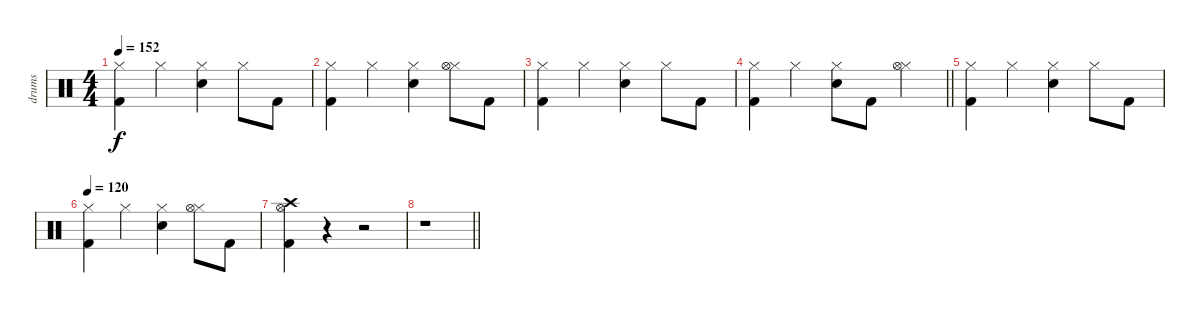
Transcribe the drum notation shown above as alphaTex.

\track ("drums" "drums") {instrument percussion}
\staff {score}
\articulation defaults
\ts (4 4)
\tempo 152
\clef neutral
\ks c
("Hi-Hat (closed)" "Kick (hit) 2").4{dy f} "Hi-Hat (closed)".4 ("Hi-Hat (closed)" "Electric Snare (hit)").4 "Hi-Hat (closed)".8 "Kick (hit) 2".8 |
("Hi-Hat (closed)" "Kick (hit) 2").4 "Hi-Hat (closed)".4 ("Hi-Hat (closed)" "Electric Snare (hit)").4 ("Hi-Hat (closed)" "Hi-Hat (open)").8 "Kick (hit) 2".8 |
("Hi-Hat (closed)" "Kick (hit) 2").4 "Hi-Hat (closed)".4 ("Hi-Hat (closed)" "Electric Snare (hit)").4 "Hi-Hat (closed)".8 "Kick (hit) 2".8 |
\barLineRight lightlight
("Hi-Hat (closed)" "Kick (hit) 2").4 "Hi-Hat (closed)".4 ("Hi-Hat (closed)" "Electric Snare (hit)").8 "Kick (hit) 2".8 ("Hi-Hat (closed)" "Hi-Hat (open)").4 |
("Hi-Hat (closed)" "Kick (hit) 2").4 "Hi-Hat (closed)".4 ("Hi-Hat (closed)" "Electric Snare (hit)").4 "Hi-Hat (closed)".8 "Kick (hit) 2".8 |
\tempo 120
("Hi-Hat (closed)" "Kick (hit) 2").4 "Hi-Hat (closed)".4 ("Hi-Hat (closed)" "Electric Snare (hit)").4 ("Hi-Hat (closed)" "Hi-Hat (open)").8 "Kick (hit) 2".8 |
("Crash high (hit)" "Hi-Hat (open)" "Kick (hit) 2").4 r.4 r.2 |
\barLineRight lightlight
r.1
